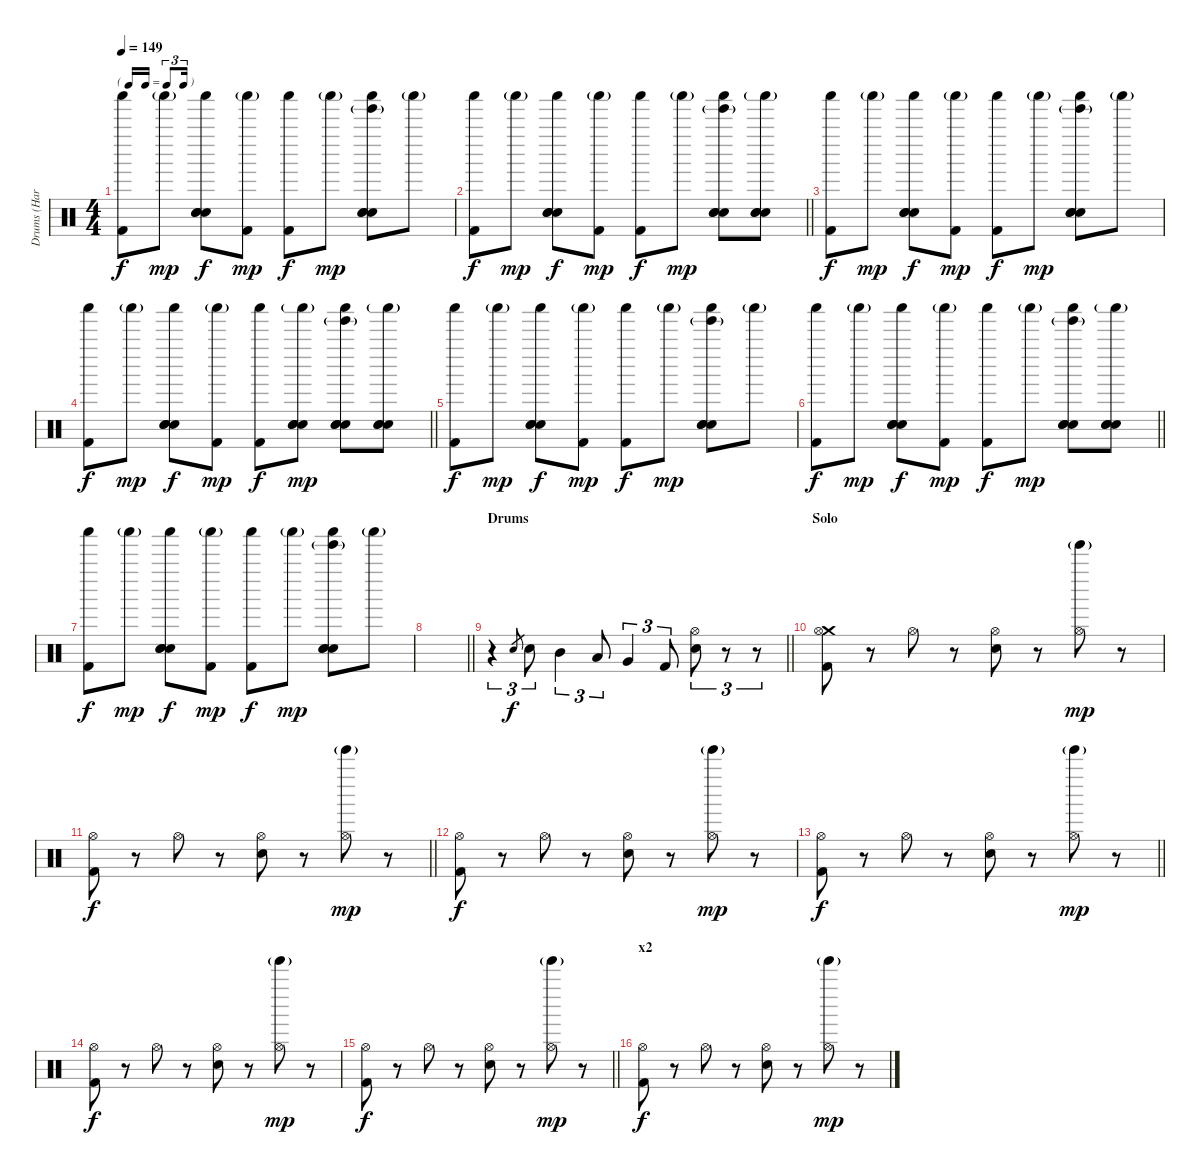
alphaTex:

\track ("Drums (Harry)" "Drums (Har") {instrument percussion}
\staff {score}
\articulation defaults
\ts (4 4)
\tf triplet16th
\tempo 149
\clef neutral
\ks c
("Shaker (hit)" "Kick (hit) 2").8{dy f} "Shaker (hit)"{g}.8{dy mp} ("Shaker (hit)" "Hand Clap (hit)" "Hand Clap (hit)" "Hand Clap (hit)").8{dy f} ("Shaker (hit)"{g} "Kick (hit) 2").8{dy mp} ("Shaker (hit)" "Kick (hit) 2").8{dy f} "Shaker (hit)"{g}.8{dy mp} ("Tinkle Bell (hit)"{g} "Shaker (hit)" "Hand Clap (hit)" "Hand Clap (hit)" "Hand Clap (hit)").8 "Shaker (hit)"{g}.8 |
\barLineRight lightlight
("Shaker (hit)" "Kick (hit) 2").8{dy f} "Shaker (hit)"{g}.8{dy mp} ("Shaker (hit)" "Hand Clap (hit)" "Hand Clap (hit)" "Hand Clap (hit)").8{dy f} ("Shaker (hit)"{g} "Kick (hit) 2").8{dy mp} ("Shaker (hit)" "Kick (hit) 2").8{dy f} "Shaker (hit)"{g}.8{dy mp} ("Tinkle Bell (hit)"{g} "Shaker (hit)" "Hand Clap (hit)" "Hand Clap (hit)" "Hand Clap (hit)").8 ("Shaker (hit)"{g} "Hand Clap (hit)" "Hand Clap (hit)" "Hand Clap (hit)").8 |
("Shaker (hit)" "Kick (hit) 2").8{dy f} "Shaker (hit)"{g}.8{dy mp} ("Shaker (hit)" "Hand Clap (hit)" "Hand Clap (hit)" "Hand Clap (hit)").8{dy f} ("Shaker (hit)"{g} "Kick (hit) 2").8{dy mp} ("Shaker (hit)" "Kick (hit) 2").8{dy f} "Shaker (hit)"{g}.8{dy mp} ("Tinkle Bell (hit)"{g} "Shaker (hit)" "Hand Clap (hit)" "Hand Clap (hit)" "Hand Clap (hit)").8 "Shaker (hit)"{g}.8 |
\barLineRight lightlight
("Shaker (hit)" "Kick (hit) 2").8{dy f} "Shaker (hit)"{g}.8{dy mp} ("Shaker (hit)" "Hand Clap (hit)" "Hand Clap (hit)" "Hand Clap (hit)").8{dy f} ("Shaker (hit)"{g} "Kick (hit) 2").8{dy mp} ("Shaker (hit)" "Kick (hit) 2").8{dy f} ("Shaker (hit)"{g} "Hand Clap (hit)" "Hand Clap (hit)" "Hand Clap (hit)").8{dy mp} ("Tinkle Bell (hit)"{g} "Shaker (hit)" "Hand Clap (hit)" "Hand Clap (hit)" "Hand Clap (hit)").8 ("Shaker (hit)"{g} "Hand Clap (hit)" "Hand Clap (hit)" "Hand Clap (hit)").8 |
("Shaker (hit)" "Kick (hit) 2").8{dy f} "Shaker (hit)"{g}.8{dy mp} ("Shaker (hit)" "Hand Clap (hit)" "Hand Clap (hit)" "Hand Clap (hit)").8{dy f} ("Shaker (hit)"{g} "Kick (hit) 2").8{dy mp} ("Shaker (hit)" "Kick (hit) 2").8{dy f} "Shaker (hit)"{g}.8{dy mp} ("Tinkle Bell (hit)"{g} "Shaker (hit)" "Hand Clap (hit)" "Hand Clap (hit)" "Hand Clap (hit)").8 "Shaker (hit)"{g}.8 |
\barLineRight lightlight
("Shaker (hit)" "Kick (hit) 2").8{dy f} "Shaker (hit)"{g}.8{dy mp} ("Shaker (hit)" "Hand Clap (hit)" "Hand Clap (hit)" "Hand Clap (hit)").8{dy f} ("Shaker (hit)"{g} "Kick (hit) 2").8{dy mp} ("Shaker (hit)" "Kick (hit) 2").8{dy f} "Shaker (hit)"{g}.8{dy mp} ("Tinkle Bell (hit)"{g} "Shaker (hit)" "Hand Clap (hit)" "Hand Clap (hit)" "Hand Clap (hit)").8 ("Shaker (hit)"{g} "Hand Clap (hit)" "Hand Clap (hit)" "Hand Clap (hit)").8 |
("Shaker (hit)" "Kick (hit) 2").8{dy f} "Shaker (hit)"{g}.8{dy mp} ("Shaker (hit)" "Hand Clap (hit)" "Hand Clap (hit)" "Hand Clap (hit)").8{dy f} ("Shaker (hit)"{g} "Kick (hit) 2").8{dy mp} ("Shaker (hit)" "Kick (hit) 2").8{dy f} "Shaker (hit)"{g}.8{dy mp} ("Tinkle Bell (hit)"{g} "Shaker (hit)" "Hand Clap (hit)" "Hand Clap (hit)" "Hand Clap (hit)").8 "Shaker (hit)"{g}.8 |
\barLineRight lightlight
|
\section ("" "Drums")
\barLineRight lightlight
r.4{tu (3 2)} "Electric Snare (hit)".8{gr dy f} "Electric Snare (hit)".8{tu (3 2)} "Mid Tom (hit)".4{tu (3 2)} "Low Tom (hit)".8{tu (3 2)} "Very Low Tom (hit)".4{tu (3 2)} "Kick (hit) 2".8{tu (3 2)} ("Hi-Hat (open)" "Electric Snare (hit)").8{tu (3 2)} r.8{tu (3 2)} r.8{tu (3 2)} |
\section ("" "Solo")
("Crash medium (hit)" "Hi-Hat (open)" "Kick (hit) 2").8 r.8 "Hi-Hat (open)".8 r.8 ("Hi-Hat (open)" "Electric Snare (hit)").8 r.8 ("Tinkle Bell (hit)"{g} "Hi-Hat (open)").8{dy mp} r.8 |
\barLineRight lightlight
("Hi-Hat (open)" "Kick (hit) 2").8{dy f} r.8 "Hi-Hat (open)".8 r.8 ("Hi-Hat (open)" "Electric Snare (hit)").8 r.8 ("Tinkle Bell (hit)"{g} "Hi-Hat (open)").8{dy mp} r.8 |
("Hi-Hat (open)" "Kick (hit) 2").8{dy f} r.8 "Hi-Hat (open)".8 r.8 ("Hi-Hat (open)" "Electric Snare (hit)").8 r.8 ("Tinkle Bell (hit)"{g} "Hi-Hat (open)").8{dy mp} r.8 |
\barLineRight lightlight
("Hi-Hat (open)" "Kick (hit) 2").8{dy f} r.8 "Hi-Hat (open)".8 r.8 ("Hi-Hat (open)" "Electric Snare (hit)").8 r.8 ("Tinkle Bell (hit)"{g} "Hi-Hat (open)").8{dy mp} r.8 |
("Hi-Hat (open)" "Kick (hit) 2").8{dy f} r.8 "Hi-Hat (open)".8 r.8 ("Hi-Hat (open)" "Electric Snare (hit)").8 r.8 ("Tinkle Bell (hit)"{g} "Hi-Hat (open)").8{dy mp} r.8 |
\barLineRight lightlight
("Hi-Hat (open)" "Kick (hit) 2").8{dy f} r.8 "Hi-Hat (open)".8 r.8 ("Hi-Hat (open)" "Electric Snare (hit)").8 r.8 ("Tinkle Bell (hit)"{g} "Hi-Hat (open)").8{dy mp} r.8 |
\section ("" "x2")
("Hi-Hat (open)" "Kick (hit) 2").8{dy f} r.8 "Hi-Hat (open)".8 r.8 ("Hi-Hat (open)" "Electric Snare (hit)").8 r.8 ("Tinkle Bell (hit)"{g} "Hi-Hat (open)").8{dy mp} r.8
